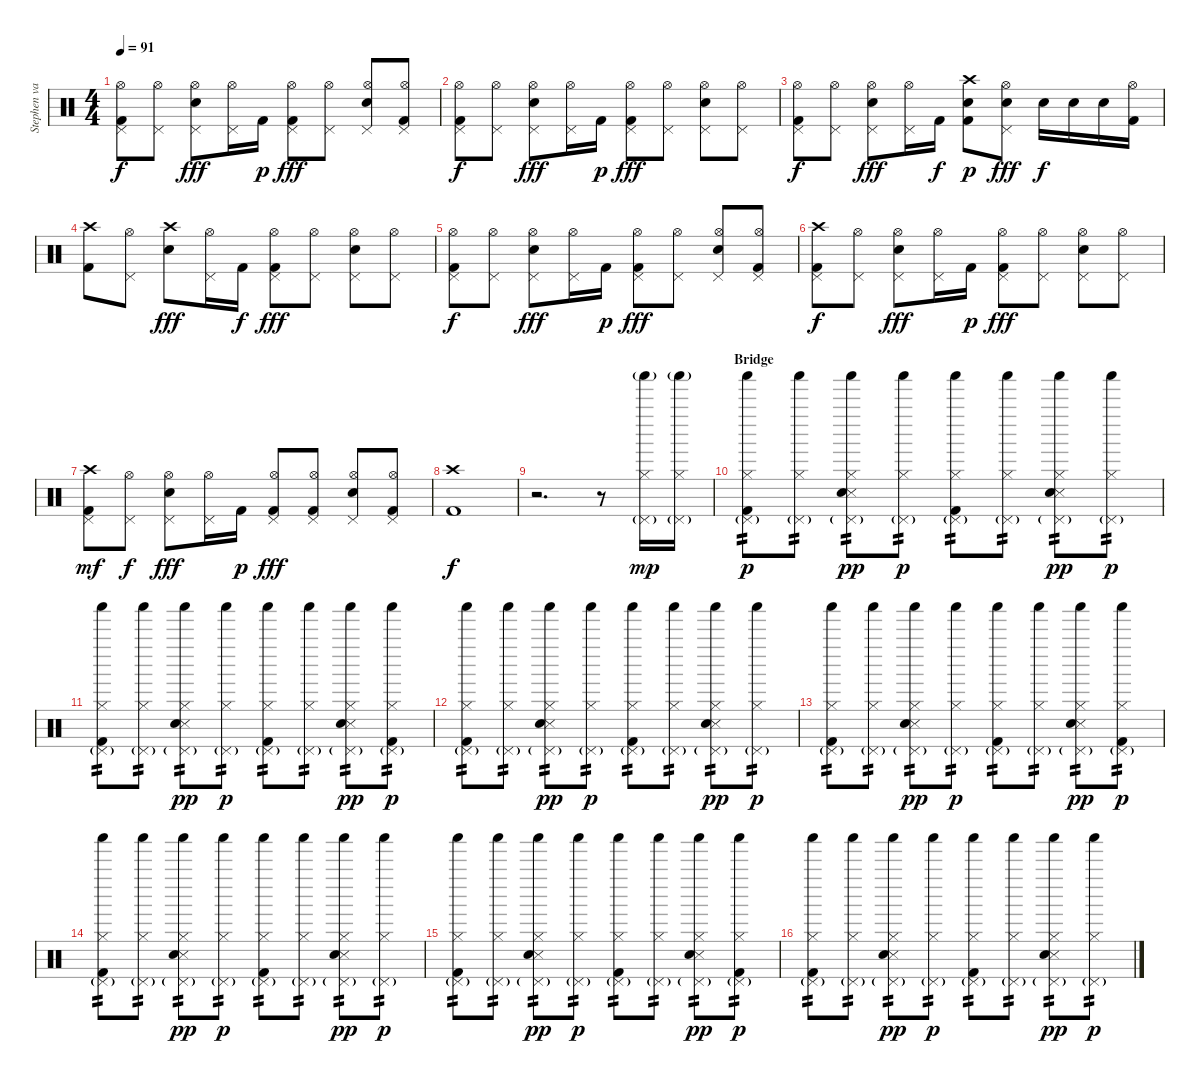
\track ("Stephen van Haestregt" "Stephen va") {instrument percussion}
\staff {score}
\articulation defaults
\ts (4 4)
\tempo 91
\clef neutral
\ks c
("Pedal Hi-Hat (hit)" "Hi-Hat (open)" "Kick (hit) 2").8{dy f} ("Pedal Hi-Hat (hit)" "Hi-Hat (open)").8 ("Pedal Hi-Hat (hit)" "Hi-Hat (open)" "Electric Snare (hit)").8{dy fff} ("Pedal Hi-Hat (hit)" "Hi-Hat (open)").16 "Kick (hit) 2".16{dy p} ("Pedal Hi-Hat (hit)" "Hi-Hat (open)" "Kick (hit) 2").8{dy fff} ("Pedal Hi-Hat (hit)" "Hi-Hat (open)").8 ("Pedal Hi-Hat (hit)" "Hi-Hat (open)" "Electric Snare (hit)").8 ("Pedal Hi-Hat (hit)" "Hi-Hat (open)" "Kick (hit) 2").8 |
("Pedal Hi-Hat (hit)" "Hi-Hat (open)" "Kick (hit) 2").8{dy f} ("Pedal Hi-Hat (hit)" "Hi-Hat (open)").8 ("Pedal Hi-Hat (hit)" "Hi-Hat (open)" "Electric Snare (hit)").8{dy fff} ("Pedal Hi-Hat (hit)" "Hi-Hat (open)").16 "Kick (hit) 2".16{dy p} ("Pedal Hi-Hat (hit)" "Hi-Hat (open)" "Kick (hit) 2").8{dy fff} ("Pedal Hi-Hat (hit)" "Hi-Hat (open)").8 ("Pedal Hi-Hat (hit)" "Hi-Hat (open)" "Electric Snare (hit)").8 ("Pedal Hi-Hat (hit)" "Hi-Hat (open)").8 |
("Pedal Hi-Hat (hit)" "Hi-Hat (open)" "Kick (hit) 2").8{dy f} ("Pedal Hi-Hat (hit)" "Hi-Hat (open)").8 ("Pedal Hi-Hat (hit)" "Hi-Hat (open)" "Electric Snare (hit)").8{dy fff} ("Pedal Hi-Hat (hit)" "Hi-Hat (open)").16 "Kick (hit) 2".16{dy f} ("Crash high (hit)" "Kick (hit) 2" "Electric Snare (hit)").8{dy p} ("Pedal Hi-Hat (hit)" "Hi-Hat (open)" "Electric Snare (hit)").8{dy fff} "Electric Snare (hit)".16{dy f} "Electric Snare (hit)".16 "Electric Snare (hit)".16 ("Hi-Hat (open)" "Kick (hit) 2").16 |
("Crash high (hit)" "Kick (hit) 2").8 ("Pedal Hi-Hat (hit)" "Hi-Hat (open)").8 ("Crash high (hit)" "Electric Snare (hit)").8{dy fff} ("Pedal Hi-Hat (hit)" "Hi-Hat (open)").16 "Kick (hit) 2".16{dy f} ("Pedal Hi-Hat (hit)" "Hi-Hat (open)" "Kick (hit) 2").8{dy fff} ("Pedal Hi-Hat (hit)" "Hi-Hat (open)").8 ("Pedal Hi-Hat (hit)" "Hi-Hat (open)" "Electric Snare (hit)").8 ("Pedal Hi-Hat (hit)" "Hi-Hat (open)").8 |
("Pedal Hi-Hat (hit)" "Hi-Hat (open)" "Kick (hit) 2").8{dy f} ("Pedal Hi-Hat (hit)" "Hi-Hat (open)").8 ("Pedal Hi-Hat (hit)" "Hi-Hat (open)" "Electric Snare (hit)").8{dy fff} ("Pedal Hi-Hat (hit)" "Hi-Hat (open)").16 "Kick (hit) 2".16{dy p} ("Pedal Hi-Hat (hit)" "Hi-Hat (open)" "Kick (hit) 2").8{dy fff} ("Pedal Hi-Hat (hit)" "Hi-Hat (open)").8 ("Pedal Hi-Hat (hit)" "Hi-Hat (open)" "Electric Snare (hit)").8 ("Pedal Hi-Hat (hit)" "Hi-Hat (open)" "Kick (hit) 2").8 |
("Pedal Hi-Hat (hit)" "Crash high (hit)" "Kick (hit) 2").8{dy f} ("Pedal Hi-Hat (hit)" "Hi-Hat (open)").8 ("Pedal Hi-Hat (hit)" "Hi-Hat (open)" "Electric Snare (hit)").8{dy fff} ("Pedal Hi-Hat (hit)" "Hi-Hat (open)").16 "Kick (hit) 2".16{dy p} ("Pedal Hi-Hat (hit)" "Hi-Hat (open)" "Kick (hit) 2").8{dy fff} ("Pedal Hi-Hat (hit)" "Hi-Hat (open)").8 ("Pedal Hi-Hat (hit)" "Hi-Hat (open)" "Electric Snare (hit)").8 ("Pedal Hi-Hat (hit)" "Hi-Hat (open)").8 |
("Pedal Hi-Hat (hit)" "Crash high (hit)" "Kick (hit) 2").8{dy mf} ("Pedal Hi-Hat (hit)" "Hi-Hat (open)").8{dy f} ("Pedal Hi-Hat (hit)" "Hi-Hat (open)" "Electric Snare (hit)").8{dy fff} ("Pedal Hi-Hat (hit)" "Hi-Hat (open)").16 "Kick (hit) 2".16{dy p} ("Pedal Hi-Hat (hit)" "Hi-Hat (open)" "Kick (hit) 2").8{dy fff} ("Pedal Hi-Hat (hit)" "Hi-Hat (open)" "Kick (hit) 2").8 ("Pedal Hi-Hat (hit)" "Hi-Hat (open)" "Electric Snare (hit)").8 ("Pedal Hi-Hat (hit)" "Hi-Hat (open)" "Kick (hit) 2").8 |
("Crash high (hit)" "Kick (hit) 2").1{dy f} |
r.2{d} r.8 ("Hi-Hat (closed)" "Pedal Hi-Hat (hit)"{g} "Shaker (hit)"{g}).16{dy mp} ("Hi-Hat (closed)" "Pedal Hi-Hat (hit)"{g} "Shaker (hit)"{g}).16 |
\section ("" "Bridge")
("Hi-Hat (closed)" "Pedal Hi-Hat (hit)"{g} "Shaker (hit)" "Kick (hit) 2").8{tp 2 dy p} ("Hi-Hat (closed)" "Pedal Hi-Hat (hit)"{g} "Shaker (hit)").8{tp 2} ("Hi-Hat (closed)" "Pedal Hi-Hat (hit)"{g} "Shaker (hit)" "Snare (side stick) 3" "Electric Snare (hit)").8{tp 2 dy pp} ("Hi-Hat (closed)" "Pedal Hi-Hat (hit)"{g} "Shaker (hit)").8{tp 2 dy p} ("Hi-Hat (closed)" "Pedal Hi-Hat (hit)"{g} "Shaker (hit)" "Kick (hit) 2").8{tp 2} ("Hi-Hat (closed)" "Pedal Hi-Hat (hit)"{g} "Shaker (hit)").8{tp 2} ("Hi-Hat (closed)" "Pedal Hi-Hat (hit)"{g} "Shaker (hit)" "Snare (side stick) 3" "Electric Snare (hit)").8{tp 2 dy pp} ("Hi-Hat (closed)" "Pedal Hi-Hat (hit)"{g} "Shaker (hit)").8{tp 2 dy p} |
("Hi-Hat (closed)" "Pedal Hi-Hat (hit)"{g} "Shaker (hit)" "Kick (hit) 2").8{tp 2} ("Hi-Hat (closed)" "Pedal Hi-Hat (hit)"{g} "Shaker (hit)").8{tp 2} ("Hi-Hat (closed)" "Pedal Hi-Hat (hit)"{g} "Shaker (hit)" "Snare (side stick) 3" "Electric Snare (hit)").8{tp 2 dy pp} ("Hi-Hat (closed)" "Pedal Hi-Hat (hit)"{g} "Shaker (hit)").8{tp 2 dy p} ("Hi-Hat (closed)" "Pedal Hi-Hat (hit)"{g} "Shaker (hit)" "Kick (hit) 2").8{tp 2} ("Hi-Hat (closed)" "Pedal Hi-Hat (hit)"{g} "Shaker (hit)").8{tp 2} ("Hi-Hat (closed)" "Pedal Hi-Hat (hit)"{g} "Shaker (hit)" "Snare (side stick) 3" "Electric Snare (hit)").8{tp 2 dy pp} ("Hi-Hat (closed)" "Pedal Hi-Hat (hit)"{g} "Shaker (hit)" "Kick (hit) 2").8{tp 2 dy p} |
("Hi-Hat (closed)" "Pedal Hi-Hat (hit)"{g} "Shaker (hit)" "Kick (hit) 2").8{tp 2} ("Hi-Hat (closed)" "Pedal Hi-Hat (hit)"{g} "Shaker (hit)").8{tp 2} ("Hi-Hat (closed)" "Pedal Hi-Hat (hit)"{g} "Shaker (hit)" "Snare (side stick) 3" "Electric Snare (hit)").8{tp 2 dy pp} ("Hi-Hat (closed)" "Pedal Hi-Hat (hit)"{g} "Shaker (hit)").8{tp 2 dy p} ("Hi-Hat (closed)" "Pedal Hi-Hat (hit)"{g} "Shaker (hit)" "Kick (hit) 2").8{tp 2} ("Hi-Hat (closed)" "Pedal Hi-Hat (hit)"{g} "Shaker (hit)").8{tp 2} ("Hi-Hat (closed)" "Pedal Hi-Hat (hit)"{g} "Shaker (hit)" "Snare (side stick) 3" "Electric Snare (hit)").8{tp 2 dy pp} ("Hi-Hat (closed)" "Pedal Hi-Hat (hit)"{g} "Shaker (hit)").8{tp 2 dy p} |
("Hi-Hat (closed)" "Pedal Hi-Hat (hit)"{g} "Shaker (hit)" "Kick (hit) 2").8{tp 2} ("Hi-Hat (closed)" "Pedal Hi-Hat (hit)"{g} "Shaker (hit)").8{tp 2} ("Hi-Hat (closed)" "Pedal Hi-Hat (hit)"{g} "Shaker (hit)" "Snare (side stick) 3" "Electric Snare (hit)").8{tp 2 dy pp} ("Hi-Hat (closed)" "Pedal Hi-Hat (hit)"{g} "Shaker (hit)").8{tp 2 dy p} ("Hi-Hat (closed)" "Pedal Hi-Hat (hit)"{g} "Shaker (hit)" "Kick (hit) 2").8{tp 2} ("Hi-Hat (closed)" "Pedal Hi-Hat (hit)"{g} "Shaker (hit)").8{tp 2} ("Hi-Hat (closed)" "Pedal Hi-Hat (hit)"{g} "Shaker (hit)" "Snare (side stick) 3" "Electric Snare (hit)").8{tp 2 dy pp} ("Hi-Hat (closed)" "Pedal Hi-Hat (hit)"{g} "Shaker (hit)" "Kick (hit) 2").8{tp 2 dy p} |
("Hi-Hat (closed)" "Pedal Hi-Hat (hit)"{g} "Shaker (hit)" "Kick (hit) 2").8{tp 2} ("Hi-Hat (closed)" "Pedal Hi-Hat (hit)"{g} "Shaker (hit)").8{tp 2} ("Hi-Hat (closed)" "Pedal Hi-Hat (hit)"{g} "Shaker (hit)" "Snare (side stick) 3" "Electric Snare (hit)").8{tp 2 dy pp} ("Hi-Hat (closed)" "Pedal Hi-Hat (hit)"{g} "Shaker (hit)").8{tp 2 dy p} ("Hi-Hat (closed)" "Pedal Hi-Hat (hit)"{g} "Shaker (hit)" "Kick (hit) 2").8{tp 2} ("Hi-Hat (closed)" "Pedal Hi-Hat (hit)"{g} "Shaker (hit)").8{tp 2} ("Hi-Hat (closed)" "Pedal Hi-Hat (hit)"{g} "Shaker (hit)" "Snare (side stick) 3" "Electric Snare (hit)").8{tp 2 dy pp} ("Hi-Hat (closed)" "Pedal Hi-Hat (hit)"{g} "Shaker (hit)").8{tp 2 dy p} |
("Hi-Hat (closed)" "Pedal Hi-Hat (hit)"{g} "Shaker (hit)" "Kick (hit) 2").8{tp 2} ("Hi-Hat (closed)" "Pedal Hi-Hat (hit)"{g} "Shaker (hit)").8{tp 2} ("Hi-Hat (closed)" "Pedal Hi-Hat (hit)"{g} "Shaker (hit)" "Snare (side stick) 3" "Electric Snare (hit)").8{tp 2 dy pp} ("Hi-Hat (closed)" "Pedal Hi-Hat (hit)"{g} "Shaker (hit)").8{tp 2 dy p} ("Hi-Hat (closed)" "Pedal Hi-Hat (hit)"{g} "Shaker (hit)" "Kick (hit) 2").8{tp 2} ("Hi-Hat (closed)" "Pedal Hi-Hat (hit)"{g} "Shaker (hit)").8{tp 2} ("Hi-Hat (closed)" "Pedal Hi-Hat (hit)"{g} "Shaker (hit)" "Snare (side stick) 3" "Electric Snare (hit)").8{tp 2 dy pp} ("Hi-Hat (closed)" "Pedal Hi-Hat (hit)"{g} "Shaker (hit)" "Kick (hit) 2").8{tp 2 dy p} |
("Hi-Hat (closed)" "Pedal Hi-Hat (hit)"{g} "Shaker (hit)" "Kick (hit) 2").8{tp 2} ("Hi-Hat (closed)" "Pedal Hi-Hat (hit)"{g} "Shaker (hit)").8{tp 2} ("Hi-Hat (closed)" "Pedal Hi-Hat (hit)"{g} "Shaker (hit)" "Snare (side stick) 3" "Electric Snare (hit)").8{tp 2 dy pp} ("Hi-Hat (closed)" "Pedal Hi-Hat (hit)"{g} "Shaker (hit)").8{tp 2 dy p} ("Hi-Hat (closed)" "Pedal Hi-Hat (hit)"{g} "Shaker (hit)" "Kick (hit) 2").8{tp 2} ("Hi-Hat (closed)" "Pedal Hi-Hat (hit)"{g} "Shaker (hit)").8{tp 2} ("Hi-Hat (closed)" "Pedal Hi-Hat (hit)"{g} "Shaker (hit)" "Snare (side stick) 3" "Electric Snare (hit)").8{tp 2 dy pp} ("Hi-Hat (closed)" "Pedal Hi-Hat (hit)"{g} "Shaker (hit)").8{tp 2 dy p}
